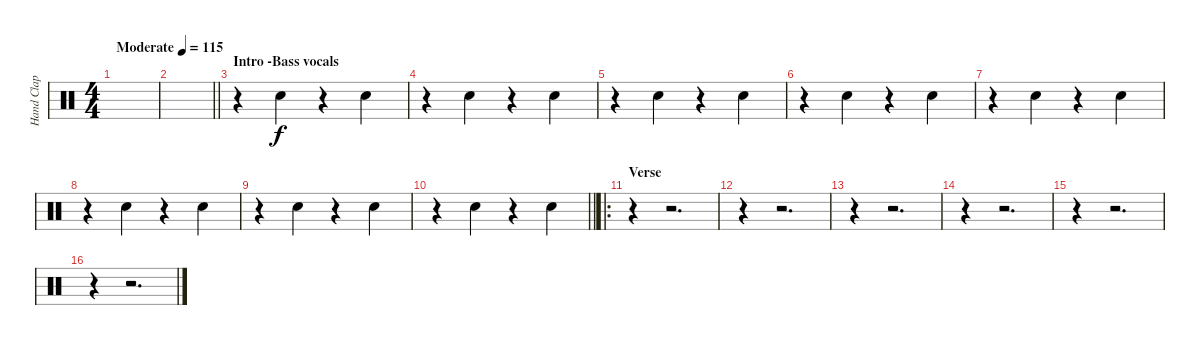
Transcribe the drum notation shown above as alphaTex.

\track ("Hand Clap" "Hand Clap") {instrument percussion}
\staff {score}
\articulation defaults
\ts (4 4)
\tempo (115 "Moderate")
\clef neutral
\ks c
|
\barLineRight lightlight
|
\section ("" "Intro -Bass vocals")
r.4 "Hand Clap (hit)".4 r.4 "Hand Clap (hit)".4 |
r.4 "Hand Clap (hit)".4 r.4 "Hand Clap (hit)".4 |
r.4 "Hand Clap (hit)".4 r.4 "Hand Clap (hit)".4 |
r.4 "Hand Clap (hit)".4 r.4 "Hand Clap (hit)".4 |
r.4 "Hand Clap (hit)".4 r.4 "Hand Clap (hit)".4 |
r.4 "Hand Clap (hit)".4 r.4 "Hand Clap (hit)".4 |
r.4 "Hand Clap (hit)".4 r.4 "Hand Clap (hit)".4 |
\barLineRight lightlight
r.4 "Hand Clap (hit)".4 r.4 "Hand Clap (hit)".4 |
\ro
\section ("" "Verse")
r.4 r.2{d} |
r.4 r.2{d} |
r.4 r.2{d} |
r.4 r.2{d} |
r.4 r.2{d} |
r.4 r.2{d}
